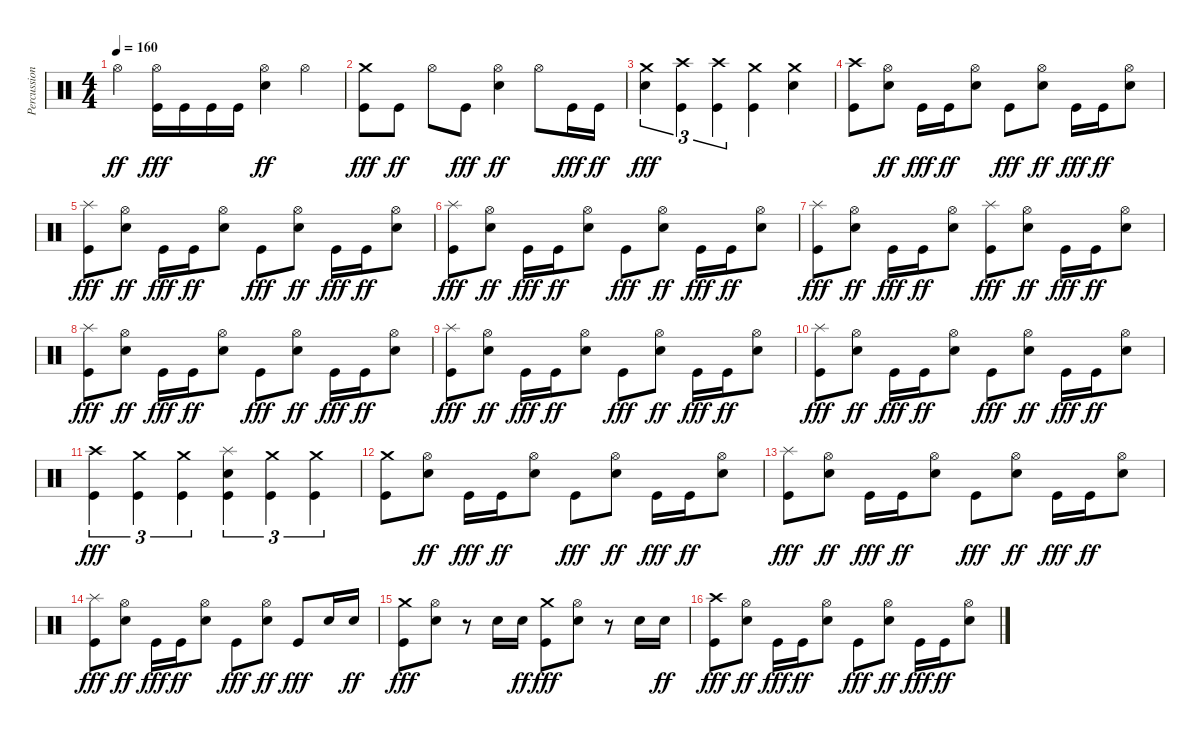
\track ("Percussion" "Percussion") {instrument percussion}
\staff {score}
\articulation defaults
\ts (4 4)
\tempo 160
\clef neutral
\ks c "Hi-Hat (open)".4{dy ff}
("Hi-Hat (open)" "Kick (hit)").16{dy fff} "Kick (hit)".16 "Kick (hit)".16 "Kick (hit)".16 ("Hi-Hat (open)" "Electric Snare (hit)").4{dy ff} "Hi-Hat (open)".4 |
("Crash medium (hit)" "Kick (hit)").8{dy fff} "Kick (hit)".8{dy ff} "Hi-Hat (open)".8 "Kick (hit)".8{dy fff} ("Hi-Hat (open)" "Electric Snare (hit)").4{dy ff} "Hi-Hat (open)".8 "Kick (hit)".16{dy fff} "Kick (hit)".16{dy ff} |
("Crash medium (hit)" "Electric Snare (hit)").4{tu (3 2) dy fff} ("Crash high (hit)" "Kick (hit)").4{tu (3 2)} ("Crash high (hit)" "Kick (hit)").4{tu (3 2)} ("Crash medium (hit)" "Kick (hit)").4 ("Crash medium (hit)" "Electric Snare (hit)").4 |
("Crash high (hit)" "Kick (hit)").8 ("Hi-Hat (open)" "Electric Snare (hit)").8{dy ff} "Kick (hit)".16{dy fff} "Kick (hit)".16{dy ff} ("Hi-Hat (open)" "Electric Snare (hit)").8 "Kick (hit)".8{dy fff} ("Hi-Hat (open)" "Electric Snare (hit)").8{dy ff} "Kick (hit)".16{dy fff} "Kick (hit)".16{dy ff} ("Hi-Hat (open)" "Electric Snare (hit)").8 |
("Splash (hit)" "Kick (hit)").8{dy fff} ("Hi-Hat (open)" "Electric Snare (hit)").8{dy ff} "Kick (hit)".16{dy fff} "Kick (hit)".16{dy ff} ("Hi-Hat (open)" "Electric Snare (hit)").8 "Kick (hit)".8{dy fff} ("Hi-Hat (open)" "Electric Snare (hit)").8{dy ff} "Kick (hit)".16{dy fff} "Kick (hit)".16{dy ff} ("Hi-Hat (open)" "Electric Snare (hit)").8 |
("Splash (hit)" "Kick (hit)").8{dy fff} ("Hi-Hat (open)" "Electric Snare (hit)").8{dy ff} "Kick (hit)".16{dy fff} "Kick (hit)".16{dy ff} ("Hi-Hat (open)" "Electric Snare (hit)").8 "Kick (hit)".8{dy fff} ("Hi-Hat (open)" "Electric Snare (hit)").8{dy ff} "Kick (hit)".16{dy fff} "Kick (hit)".16{dy ff} ("Hi-Hat (open)" "Electric Snare (hit)").8 |
("Splash (hit)" "Kick (hit)").8{dy fff} ("Hi-Hat (open)" "Electric Snare (hit)").8{dy ff} "Kick (hit)".16{dy fff} "Kick (hit)".16{dy ff} ("Hi-Hat (open)" "Electric Snare (hit)").8 ("Splash (hit)" "Kick (hit)").8{dy fff} ("Hi-Hat (open)" "Electric Snare (hit)").8{dy ff} "Kick (hit)".16{dy fff} "Kick (hit)".16{dy ff} ("Hi-Hat (open)" "Electric Snare (hit)").8 |
("Splash (hit)" "Kick (hit)").8{dy fff} ("Hi-Hat (open)" "Electric Snare (hit)").8{dy ff} "Kick (hit)".16{dy fff} "Kick (hit)".16{dy ff} ("Hi-Hat (open)" "Electric Snare (hit)").8 "Kick (hit)".8{dy fff} ("Hi-Hat (open)" "Electric Snare (hit)").8{dy ff} "Kick (hit)".16{dy fff} "Kick (hit)".16{dy ff} ("Hi-Hat (open)" "Electric Snare (hit)").8 |
("Splash (hit)" "Kick (hit)").8{dy fff} ("Hi-Hat (open)" "Electric Snare (hit)").8{dy ff} "Kick (hit)".16{dy fff} "Kick (hit)".16{dy ff} ("Hi-Hat (open)" "Electric Snare (hit)").8 "Kick (hit)".8{dy fff} ("Hi-Hat (open)" "Electric Snare (hit)").8{dy ff} "Kick (hit)".16{dy fff} "Kick (hit)".16{dy ff} ("Hi-Hat (open)" "Electric Snare (hit)").8 |
("Splash (hit)" "Kick (hit)").8{dy fff} ("Hi-Hat (open)" "Electric Snare (hit)").8{dy ff} "Kick (hit)".16{dy fff} "Kick (hit)".16{dy ff} ("Hi-Hat (open)" "Electric Snare (hit)").8 "Kick (hit)".8{dy fff} ("Hi-Hat (open)" "Electric Snare (hit)").8{dy ff} "Kick (hit)".16{dy fff} "Kick (hit)".16{dy ff} ("Hi-Hat (open)" "Electric Snare (hit)").8 |
("Crash high (hit)" "Kick (hit)").4{tu (3 2) dy fff} ("Crash medium (hit)" "Kick (hit)").4{tu (3 2)} ("Crash medium (hit)" "Kick (hit)").4{tu (3 2)} ("Splash (hit)" "Electric Snare (hit)" "Kick (hit)").4{tu (3 2)} ("Crash medium (hit)" "Kick (hit)").4{tu (3 2)} ("Crash medium (hit)" "Kick (hit)").4{tu (3 2)} |
("Crash medium (hit)" "Kick (hit)").8 ("Hi-Hat (open)" "Electric Snare (hit)").8{dy ff} "Kick (hit)".16{dy fff} "Kick (hit)".16{dy ff} ("Hi-Hat (open)" "Electric Snare (hit)").8 "Kick (hit)".8{dy fff} ("Hi-Hat (open)" "Electric Snare (hit)").8{dy ff} "Kick (hit)".16{dy fff} "Kick (hit)".16{dy ff} ("Hi-Hat (open)" "Electric Snare (hit)").8 |
("Splash (hit)" "Kick (hit)").8{dy fff} ("Hi-Hat (open)" "Electric Snare (hit)").8{dy ff} "Kick (hit)".16{dy fff} "Kick (hit)".16{dy ff} ("Hi-Hat (open)" "Electric Snare (hit)").8 "Kick (hit)".8{dy fff} ("Hi-Hat (open)" "Electric Snare (hit)").8{dy ff} "Kick (hit)".16{dy fff} "Kick (hit)".16{dy ff} ("Hi-Hat (open)" "Electric Snare (hit)").8 |
("Splash (hit)" "Kick (hit)").8{dy fff} ("Hi-Hat (open)" "Electric Snare (hit)").8{dy ff} "Kick (hit)".16{dy fff} "Kick (hit)".16{dy ff} ("Hi-Hat (open)" "Electric Snare (hit)").8 "Kick (hit)".8{dy fff} ("Hi-Hat (open)" "Electric Snare (hit)").8{dy ff} "Kick (hit)".8{dy fff} "Electric Snare (hit)".16 "Electric Snare (hit)".16{dy ff} |
("Crash medium (hit)" "Kick (hit)").8{dy fff} ("Hi-Hat (open)" "Electric Snare (hit)").8 r.8 "Electric Snare (hit)".16 "Electric Snare (hit)".16{dy ff} ("Crash medium (hit)" "Kick (hit)").8{dy fff} ("Hi-Hat (open)" "Electric Snare (hit)").8 r.8 "Electric Snare (hit)".16 "Electric Snare (hit)".16{dy ff} |
("Crash high (hit)" "Kick (hit)").8{dy fff} ("Hi-Hat (open)" "Electric Snare (hit)").8{dy ff} "Kick (hit)".16{dy fff} "Kick (hit)".16{dy ff} ("Hi-Hat (open)" "Electric Snare (hit)").8 "Kick (hit)".8{dy fff} ("Hi-Hat (open)" "Electric Snare (hit)").8{dy ff} "Kick (hit)".16{dy fff} "Kick (hit)".16{dy ff} ("Hi-Hat (open)" "Electric Snare (hit)").8
